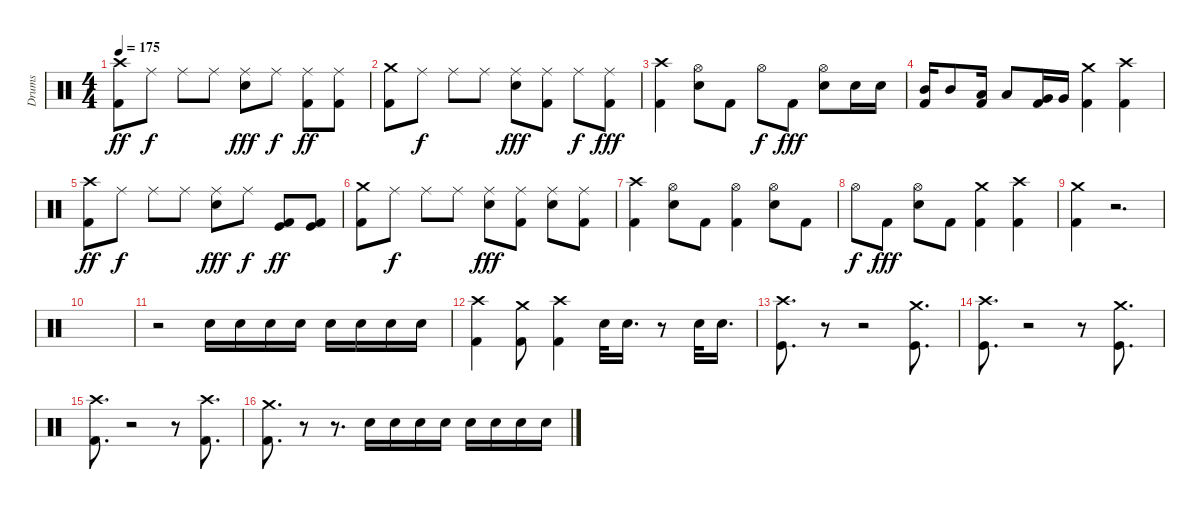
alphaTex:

\track ("Drums" "Drums") {instrument percussion}
\staff {score}
\articulation defaults
\ts (4 4)
\tempo 175
\clef neutral
\ks c
("Crash high (hit)" "Kick (hit) 2").8{dy ff} "Ride (middle)".8{dy f} "Ride (middle)".8 "Ride (middle)".8 ("Ride (middle)" "Snare (hit) 2").8{dy fff} "Ride (middle)".8{dy f} ("Ride (middle)" "Kick (hit) 2").8{dy ff} ("Ride (middle)" "Kick (hit) 2").8 |
("Crash medium (hit)" "Kick (hit) 2").8 "Ride (middle)".8{dy f} "Ride (middle)".8 "Ride (middle)".8 ("Ride (middle)" "Snare (hit) 2").8{dy fff} ("Ride (middle)" "Kick (hit) 2").8 "Ride (middle)".8{dy f} ("Ride (middle)" "Kick (hit) 2").8{dy fff} |
("Crash high (hit)" "Kick (hit) 2").4 ("Hi-Hat (open)" "Snare (hit) 2").8 "Kick (hit) 2".8 "Hi-Hat (open)".8{dy f} "Kick (hit) 2".8{dy fff} ("Hi-Hat (open)" "Snare (hit) 2").8 "Snare (hit) 2".16 "Snare (hit) 2".16 |
("Mid Tom (hit)" "Kick (hit) 2").16 "Mid Tom (hit)".8 ("Low Tom (hit)" "Kick (hit) 2").16 "Low Tom (hit)".8 ("Very Low Tom (hit)" "Kick (hit) 2").16 "Very Low Tom (hit)".16 ("Crash medium (hit)" "Kick (hit) 2").4 ("Crash high (hit)" "Kick (hit) 2").4 |
("Crash high (hit)" "Kick (hit) 2").8{dy ff} "Ride (middle)".8{dy f} "Ride (middle)".8 "Ride (middle)".8 ("Ride (middle)" "Snare (hit) 2").8{dy fff} "Ride (middle)".8{dy f} ("Kick (hit)" "Kick (hit) 2").8{dy ff} ("Kick (hit)" "Kick (hit) 2").8 |
("Crash medium (hit)" "Kick (hit) 2").8 "Ride (middle)".8{dy f} "Ride (middle)".8 "Ride (middle)".8 ("Ride (middle)" "Snare (hit) 2").8{dy fff} ("Ride (middle)" "Kick (hit) 2").8 ("Ride (middle)" "Snare (hit) 2").8 ("Ride (middle)" "Kick (hit) 2").8 |
("Crash high (hit)" "Kick (hit) 2").4 ("Hi-Hat (open)" "Snare (hit) 2").8 "Kick (hit) 2".8 ("Hi-Hat (open)" "Kick (hit) 2").4 ("Hi-Hat (open)" "Snare (hit) 2").8 "Kick (hit) 2".8 |
"Hi-Hat (open)".8{dy f} "Kick (hit) 2".8{dy fff} ("Hi-Hat (open)" "Snare (hit) 2").8 "Kick (hit) 2".8 ("Crash medium (hit)" "Kick (hit) 2").4 ("Crash high (hit)" "Kick (hit) 2").4 |
("Crash medium (hit)" "Kick (hit) 2").4 r.2{d} |
|
r.2 "Snare (hit) 2".16 "Snare (hit) 2".16 "Snare (hit) 2".16 "Snare (hit) 2".16 "Snare (hit) 2".16 "Snare (hit) 2".16 "Snare (hit) 2".16 "Snare (hit) 2".16 |
("Crash high (hit)" "Kick (hit) 2").4 ("Crash medium (hit)" "Kick (hit) 2").8 ("Crash high (hit)" "Kick (hit) 2").4 "Snare (hit) 2".32 "Snare (hit) 2".16{d} r.8 "Snare (hit) 2".32 "Snare (hit) 2".16{d} |
("Crash high (hit)" "Kick (hit)").8{d} r.8 r.2 ("Crash medium (hit)" "Kick (hit)").8{d} |
("Crash high (hit)" "Kick (hit)").8{d} r.2 r.8 ("Crash medium (hit)" "Kick (hit)").8{d} |
("Crash high (hit)" "Kick (hit) 2").8{d} r.2 r.8 ("Crash high (hit)" "Kick (hit) 2").8{d} |
("Crash medium (hit)" "Kick (hit) 2").8{d} r.8 r.8{d} "Snare (hit) 2".16 "Snare (hit) 2".16 "Snare (hit) 2".16 "Snare (hit) 2".16 "Snare (hit) 2".16 "Snare (hit) 2".16 "Snare (hit) 2".16 "Snare (hit) 2".16
